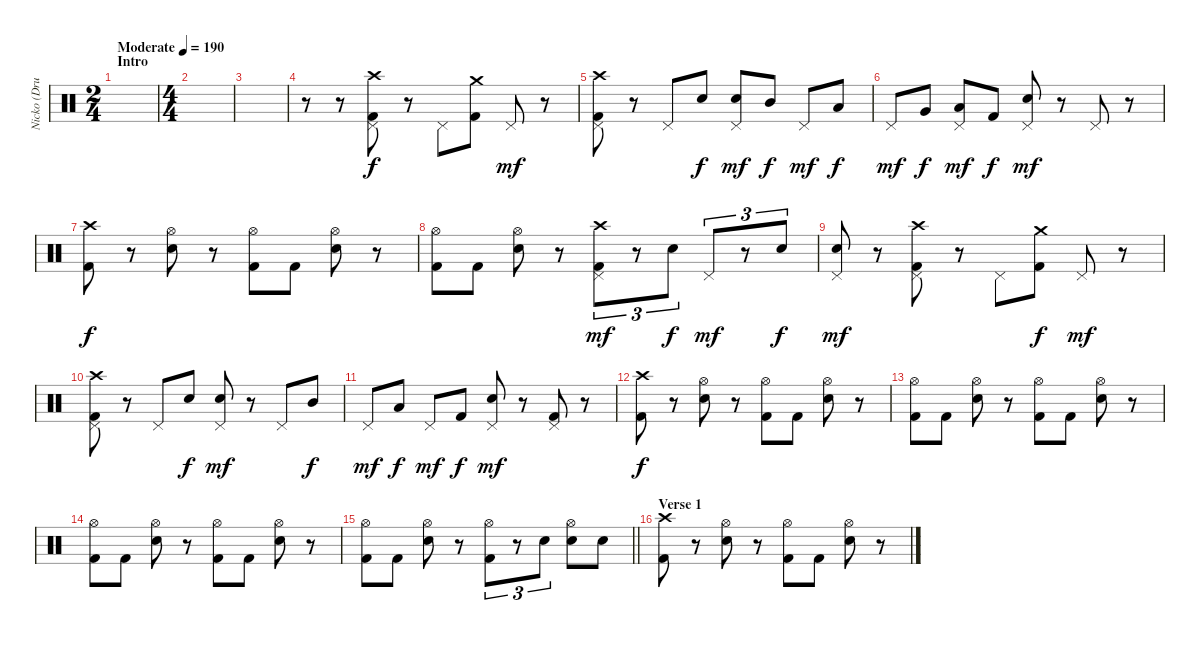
\track ("Nicko (Drums)" "Nicko (Dru") {instrument percussion}
\staff {score}
\articulation defaults
\ts (2 4)
\section ("" "Intro")
\tempo (190 "Moderate")
\clef neutral
\ks c
|
\ts (4 4)
|
|
r.8 r.8 ("Crash high (hit)" "Pedal Hi-Hat (hit)" "Kick (hit) 2").8 r.8 "Pedal Hi-Hat (hit)".8 ("Crash medium (hit)" "Kick (hit) 2").8{dy f} "Pedal Hi-Hat (hit)".8{dy mf} r.8 |
("Crash high (hit)" "Pedal Hi-Hat (hit)" "Kick (hit) 2").8 r.8 "Pedal Hi-Hat (hit)".8 "Snare (hit) 2".8{dy f} ("Pedal Hi-Hat (hit)" "Snare (hit) 2").8{dy mf} "Mid Tom (hit)".8{dy f} "Pedal Hi-Hat (hit)".8{dy mf} "Low Tom (hit)".8{dy f} |
"Pedal Hi-Hat (hit)".8{dy mf} "Very Low Tom (hit)".8{dy f} ("Pedal Hi-Hat (hit)" "Low Floor Tom (hit)").8{dy mf} "Kick (hit) 2".8{dy f} ("Pedal Hi-Hat (hit)" "Snare (hit) 2").8{dy mf} r.8 "Pedal Hi-Hat (hit)".8 r.8 |
("Crash high (hit)" "Kick (hit) 2").8{dy f} r.8 ("Hi-Hat (open)" "Snare (hit) 2").8 r.8 ("Hi-Hat (open)" "Kick (hit) 2").8 "Kick (hit) 2".8 ("Hi-Hat (open)" "Snare (hit) 2").8 r.8 |
("Hi-Hat (open)" "Kick (hit) 2").8 "Kick (hit) 2".8 ("Hi-Hat (open)" "Snare (hit) 2").8 r.8 ("Crash high (hit)" "Pedal Hi-Hat (hit)" "Kick (hit) 2").8{tu (3 2) dy mf} r.8{tu (3 2)} "Snare (hit) 2".8{tu (3 2) dy f} "Pedal Hi-Hat (hit)".8{tu (3 2) dy mf} r.8{tu (3 2)} "Snare (hit) 2".8{tu (3 2) dy f} |
("Pedal Hi-Hat (hit)" "Snare (hit) 2").8{dy mf} r.8 ("Crash high (hit)" "Pedal Hi-Hat (hit)" "Kick (hit) 2").8 r.8 "Pedal Hi-Hat (hit)".8 ("Crash medium (hit)" "Kick (hit) 2").8{dy f} "Pedal Hi-Hat (hit)".8{dy mf} r.8 |
("Crash high (hit)" "Pedal Hi-Hat (hit)" "Kick (hit) 2").8 r.8 "Pedal Hi-Hat (hit)".8 "Snare (hit) 2".8{dy f} ("Pedal Hi-Hat (hit)" "Snare (hit) 2").8{dy mf} r.8 "Pedal Hi-Hat (hit)".8 "Mid Tom (hit)".8{dy f} |
"Pedal Hi-Hat (hit)".8{dy mf} "Low Tom (hit)".8{dy f} "Pedal Hi-Hat (hit)".8{dy mf} "Kick (hit) 2".8{dy f} ("Pedal Hi-Hat (hit)" "Snare (hit) 2").8{dy mf} r.8 ("Pedal Hi-Hat (hit)" "Kick (hit) 2").8 r.8 |
("Crash high (hit)" "Kick (hit) 2").8{dy f} r.8 ("Hi-Hat (open)" "Snare (hit) 2").8 r.8 ("Hi-Hat (open)" "Kick (hit) 2").8 "Kick (hit) 2".8 ("Hi-Hat (open)" "Snare (hit) 2").8 r.8 |
("Hi-Hat (open)" "Kick (hit) 2").8 "Kick (hit) 2".8 ("Hi-Hat (open)" "Snare (hit) 2").8 r.8 ("Hi-Hat (open)" "Kick (hit) 2").8 "Kick (hit) 2".8 ("Hi-Hat (open)" "Snare (hit) 2").8 r.8 |
("Hi-Hat (open)" "Kick (hit) 2").8 "Kick (hit) 2".8 ("Hi-Hat (open)" "Snare (hit) 2").8 r.8 ("Hi-Hat (open)" "Kick (hit) 2").8 "Kick (hit) 2".8 ("Hi-Hat (open)" "Snare (hit) 2").8 r.8 |
\barLineRight lightlight
("Hi-Hat (open)" "Kick (hit) 2").8 "Kick (hit) 2".8 ("Hi-Hat (open)" "Snare (hit) 2").8 r.8 ("Hi-Hat (open)" "Kick (hit) 2").8{tu (3 2)} r.8{tu (3 2)} "Snare (hit) 2".8{tu (3 2)} ("Hi-Hat (open)" "Snare (hit) 2").8 "Snare (hit) 2".8 |
\section ("" "Verse 1")
("Crash high (hit)" "Kick (hit) 2").8 r.8 ("Hi-Hat (open)" "Snare (hit) 2").8 r.8 ("Hi-Hat (open)" "Kick (hit) 2").8 "Kick (hit) 2".8 ("Hi-Hat (open)" "Snare (hit) 2").8 r.8
